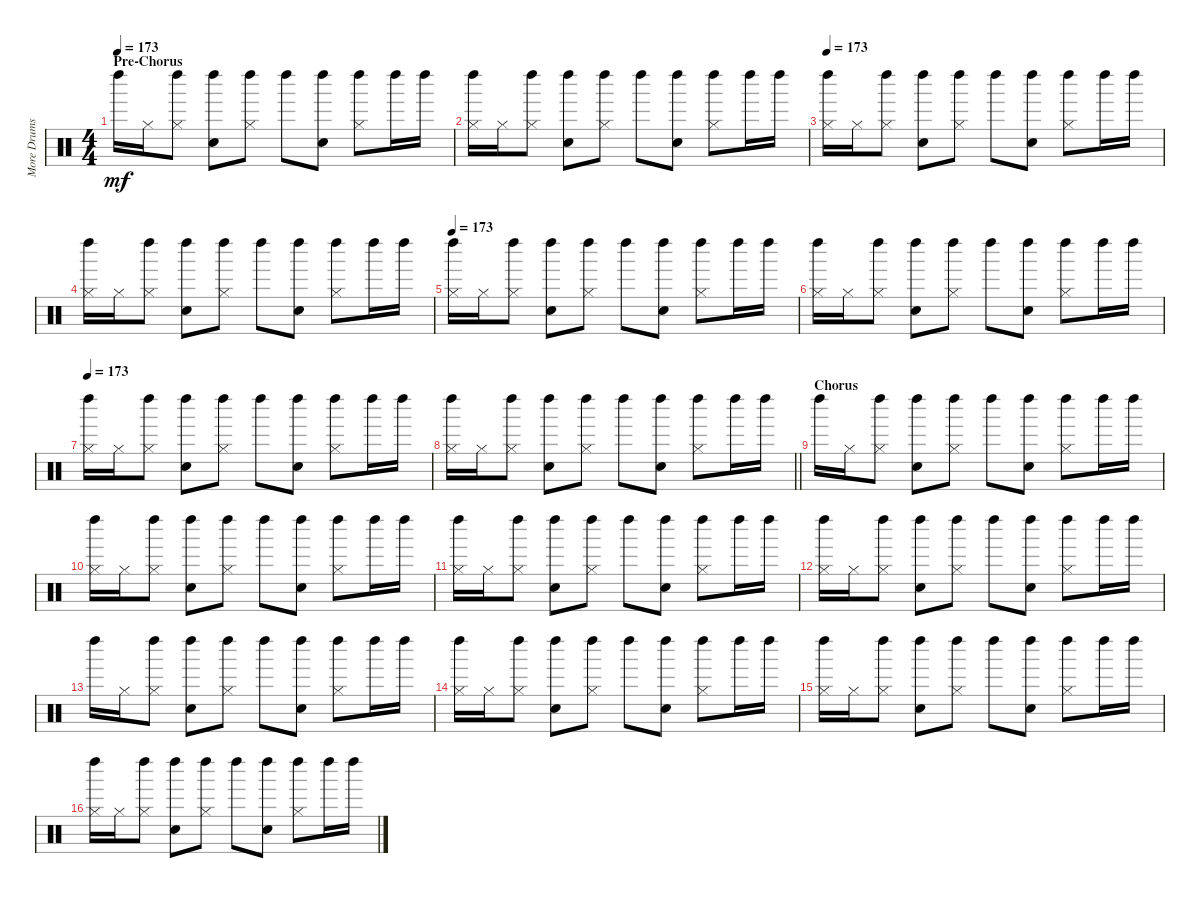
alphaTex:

\track ("More Drums" "More Drums") {instrument percussion}
\staff {score}
\articulation defaults
\ts (4 4)
\section ("" "Pre-Chorus")
\tempo 173
\clef neutral
\ks c "Left Maraca (hit)".16{dy mf} "Hi-Hat (closed)".16
("Hi-Hat (closed)" "Left Maraca (hit)").8 ("Snare (hit) 2" "Left Maraca (hit)").8 ("Hi-Hat (closed)" "Left Maraca (hit)").8 "Left Maraca (hit)".8 ("Snare (hit) 2" "Left Maraca (hit)").8 ("Hi-Hat (closed)" "Left Maraca (hit)").8 "Left Maraca (hit)".16 "Left Maraca (hit)".16 |
("Hi-Hat (closed)" "Left Maraca (hit)").16 "Hi-Hat (closed)".16 ("Hi-Hat (closed)" "Left Maraca (hit)").8 ("Snare (hit) 2" "Left Maraca (hit)").8 ("Hi-Hat (closed)" "Left Maraca (hit)").8 "Left Maraca (hit)".8 ("Snare (hit) 2" "Left Maraca (hit)").8 ("Hi-Hat (closed)" "Left Maraca (hit)").8 "Left Maraca (hit)".16 "Left Maraca (hit)".16 |
\tempo 173
("Hi-Hat (closed)" "Left Maraca (hit)").16 "Hi-Hat (closed)".16 ("Hi-Hat (closed)" "Left Maraca (hit)").8 ("Snare (hit) 2" "Left Maraca (hit)").8 ("Hi-Hat (closed)" "Left Maraca (hit)").8 "Left Maraca (hit)".8 ("Snare (hit) 2" "Left Maraca (hit)").8 ("Hi-Hat (closed)" "Left Maraca (hit)").8 "Left Maraca (hit)".16 "Left Maraca (hit)".16 |
("Hi-Hat (closed)" "Left Maraca (hit)").16 "Hi-Hat (closed)".16 ("Hi-Hat (closed)" "Left Maraca (hit)").8 ("Snare (hit) 2" "Left Maraca (hit)").8 ("Hi-Hat (closed)" "Left Maraca (hit)").8 "Left Maraca (hit)".8 ("Snare (hit) 2" "Left Maraca (hit)").8 ("Hi-Hat (closed)" "Left Maraca (hit)").8 "Left Maraca (hit)".16 "Left Maraca (hit)".16 |
\tempo 173
("Hi-Hat (closed)" "Left Maraca (hit)").16 "Hi-Hat (closed)".16 ("Hi-Hat (closed)" "Left Maraca (hit)").8 ("Snare (hit) 2" "Left Maraca (hit)").8 ("Hi-Hat (closed)" "Left Maraca (hit)").8 "Left Maraca (hit)".8 ("Snare (hit) 2" "Left Maraca (hit)").8 ("Hi-Hat (closed)" "Left Maraca (hit)").8 "Left Maraca (hit)".16 "Left Maraca (hit)".16 |
("Hi-Hat (closed)" "Left Maraca (hit)").16 "Hi-Hat (closed)".16 ("Hi-Hat (closed)" "Left Maraca (hit)").8 ("Snare (hit) 2" "Left Maraca (hit)").8 ("Hi-Hat (closed)" "Left Maraca (hit)").8 "Left Maraca (hit)".8 ("Snare (hit) 2" "Left Maraca (hit)").8 ("Hi-Hat (closed)" "Left Maraca (hit)").8 "Left Maraca (hit)".16 "Left Maraca (hit)".16 |
\tempo 173
("Hi-Hat (closed)" "Left Maraca (hit)").16 "Hi-Hat (closed)".16 ("Hi-Hat (closed)" "Left Maraca (hit)").8 ("Snare (hit) 2" "Left Maraca (hit)").8 ("Hi-Hat (closed)" "Left Maraca (hit)").8 "Left Maraca (hit)".8 ("Snare (hit) 2" "Left Maraca (hit)").8 ("Hi-Hat (closed)" "Left Maraca (hit)").8 "Left Maraca (hit)".16 "Left Maraca (hit)".16 |
\barLineRight lightlight
("Hi-Hat (closed)" "Left Maraca (hit)").16 "Hi-Hat (closed)".16 ("Hi-Hat (closed)" "Left Maraca (hit)").8 ("Snare (hit) 2" "Left Maraca (hit)").8 ("Hi-Hat (closed)" "Left Maraca (hit)").8 "Left Maraca (hit)".8 ("Snare (hit) 2" "Left Maraca (hit)").8 ("Hi-Hat (closed)" "Left Maraca (hit)").8 "Left Maraca (hit)".16 "Left Maraca (hit)".16 |
\section ("" "Chorus")
"Left Maraca (hit)".16 "Hi-Hat (closed)".16 ("Hi-Hat (closed)" "Left Maraca (hit)").8 ("Snare (hit) 2" "Left Maraca (hit)").8 ("Hi-Hat (closed)" "Left Maraca (hit)").8 "Left Maraca (hit)".8 ("Snare (hit) 2" "Left Maraca (hit)").8 ("Hi-Hat (closed)" "Left Maraca (hit)").8 "Left Maraca (hit)".16 "Left Maraca (hit)".16 |
("Hi-Hat (closed)" "Left Maraca (hit)").16 "Hi-Hat (closed)".16 ("Hi-Hat (closed)" "Left Maraca (hit)").8 ("Snare (hit) 2" "Left Maraca (hit)").8 ("Hi-Hat (closed)" "Left Maraca (hit)").8 "Left Maraca (hit)".8 ("Snare (hit) 2" "Left Maraca (hit)").8 ("Hi-Hat (closed)" "Left Maraca (hit)").8 "Left Maraca (hit)".16 "Left Maraca (hit)".16 |
("Hi-Hat (closed)" "Left Maraca (hit)").16 "Hi-Hat (closed)".16 ("Hi-Hat (closed)" "Left Maraca (hit)").8 ("Snare (hit) 2" "Left Maraca (hit)").8 ("Hi-Hat (closed)" "Left Maraca (hit)").8 "Left Maraca (hit)".8 ("Snare (hit) 2" "Left Maraca (hit)").8 ("Hi-Hat (closed)" "Left Maraca (hit)").8 "Left Maraca (hit)".16 "Left Maraca (hit)".16 |
("Hi-Hat (closed)" "Left Maraca (hit)").16 "Hi-Hat (closed)".16 ("Hi-Hat (closed)" "Left Maraca (hit)").8 ("Snare (hit) 2" "Left Maraca (hit)").8 ("Hi-Hat (closed)" "Left Maraca (hit)").8 "Left Maraca (hit)".8 ("Snare (hit) 2" "Left Maraca (hit)").8 ("Hi-Hat (closed)" "Left Maraca (hit)").8 "Left Maraca (hit)".16 "Left Maraca (hit)".16 |
"Left Maraca (hit)".16 "Hi-Hat (closed)".16 ("Hi-Hat (closed)" "Left Maraca (hit)").8 ("Snare (hit) 2" "Left Maraca (hit)").8 ("Hi-Hat (closed)" "Left Maraca (hit)").8 "Left Maraca (hit)".8 ("Snare (hit) 2" "Left Maraca (hit)").8 ("Hi-Hat (closed)" "Left Maraca (hit)").8 "Left Maraca (hit)".16 "Left Maraca (hit)".16 |
("Hi-Hat (closed)" "Left Maraca (hit)").16 "Hi-Hat (closed)".16 ("Hi-Hat (closed)" "Left Maraca (hit)").8 ("Snare (hit) 2" "Left Maraca (hit)").8 ("Hi-Hat (closed)" "Left Maraca (hit)").8 "Left Maraca (hit)".8 ("Snare (hit) 2" "Left Maraca (hit)").8 ("Hi-Hat (closed)" "Left Maraca (hit)").8 "Left Maraca (hit)".16 "Left Maraca (hit)".16 |
("Hi-Hat (closed)" "Left Maraca (hit)").16 "Hi-Hat (closed)".16 ("Hi-Hat (closed)" "Left Maraca (hit)").8 ("Snare (hit) 2" "Left Maraca (hit)").8 ("Hi-Hat (closed)" "Left Maraca (hit)").8 "Left Maraca (hit)".8 ("Snare (hit) 2" "Left Maraca (hit)").8 ("Hi-Hat (closed)" "Left Maraca (hit)").8 "Left Maraca (hit)".16 "Left Maraca (hit)".16 |
("Hi-Hat (closed)" "Left Maraca (hit)").16 "Hi-Hat (closed)".16 ("Hi-Hat (closed)" "Left Maraca (hit)").8 ("Snare (hit) 2" "Left Maraca (hit)").8 ("Hi-Hat (closed)" "Left Maraca (hit)").8 "Left Maraca (hit)".8 ("Snare (hit) 2" "Left Maraca (hit)").8 ("Hi-Hat (closed)" "Left Maraca (hit)").8 "Left Maraca (hit)".16 "Left Maraca (hit)".16
